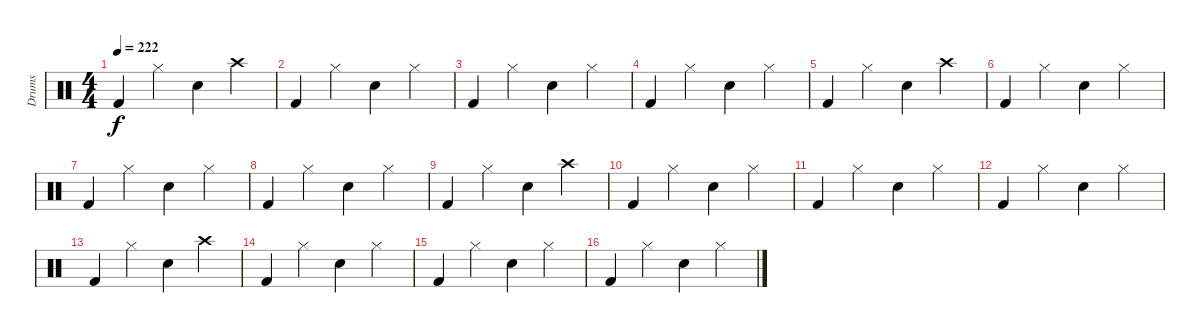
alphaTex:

\track ("Drums" "Drums") {instrument percussion}
\staff {score}
\articulation defaults
\ts (4 4)
\tempo 222
\clef neutral
\ks c "Kick (hit) 2".4{dy f} "Hi-Hat (closed)".4 "Electric Snare (hit)".4 "Crash high (hit)".4
|
"Kick (hit) 2".4 "Hi-Hat (closed)".4 "Electric Snare (hit)".4 "Hi-Hat (closed)".4 |
"Kick (hit) 2".4 "Hi-Hat (closed)".4 "Electric Snare (hit)".4 "Hi-Hat (closed)".4 |
"Kick (hit) 2".4 "Hi-Hat (closed)".4 "Electric Snare (hit)".4 "Hi-Hat (closed)".4 |
"Kick (hit) 2".4 "Hi-Hat (closed)".4 "Electric Snare (hit)".4 "Crash high (hit)".4 |
"Kick (hit) 2".4 "Hi-Hat (closed)".4 "Electric Snare (hit)".4 "Hi-Hat (closed)".4 |
"Kick (hit) 2".4 "Hi-Hat (closed)".4 "Electric Snare (hit)".4 "Hi-Hat (closed)".4 |
"Kick (hit) 2".4 "Hi-Hat (closed)".4 "Electric Snare (hit)".4 "Hi-Hat (closed)".4 |
"Kick (hit) 2".4 "Hi-Hat (closed)".4 "Electric Snare (hit)".4 "Crash high (hit)".4 |
"Kick (hit) 2".4 "Hi-Hat (closed)".4 "Electric Snare (hit)".4 "Hi-Hat (closed)".4 |
"Kick (hit) 2".4 "Hi-Hat (closed)".4 "Electric Snare (hit)".4 "Hi-Hat (closed)".4 |
"Kick (hit) 2".4 "Hi-Hat (closed)".4 "Electric Snare (hit)".4 "Hi-Hat (closed)".4 |
"Kick (hit) 2".4 "Hi-Hat (closed)".4 "Electric Snare (hit)".4 "Crash high (hit)".4 |
"Kick (hit) 2".4 "Hi-Hat (closed)".4 "Electric Snare (hit)".4 "Hi-Hat (closed)".4 |
"Kick (hit) 2".4 "Hi-Hat (closed)".4 "Electric Snare (hit)".4 "Hi-Hat (closed)".4 |
"Kick (hit) 2".4 "Hi-Hat (closed)".4 "Electric Snare (hit)".4 "Hi-Hat (closed)".4
